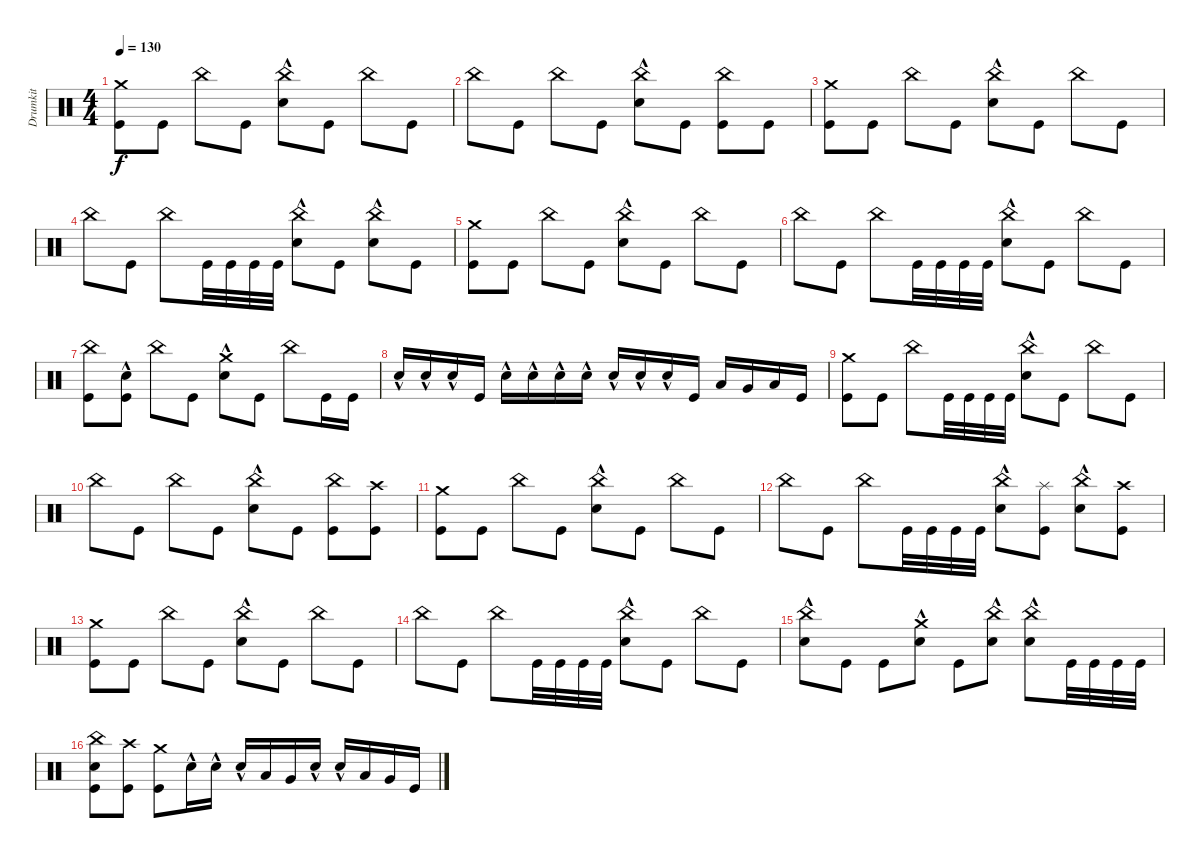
\track ("Drumkit" "Drumkit") {instrument percussion}
\staff {score}
\articulation defaults
\ts (4 4)
\tempo 130
\clef neutral
\ks c
("Kick (hit)" "Crash medium (hit)").8{dy f} "Kick (hit)".8 "China (hit)".8 "Kick (hit)".8 ("Snare (hit) 2"{hac} "China (hit)").8 "Kick (hit)".8 "China (hit)".8 "Kick (hit)".8 |
"China (hit)".8 "Kick (hit)".8 "China (hit)".8 "Kick (hit)".8 ("China (hit)" "Snare (hit) 2"{hac}).8 "Kick (hit)".8 ("China (hit)" "Kick (hit)").8 "Kick (hit)".8 |
("Kick (hit)" "Crash medium (hit)").8 "Kick (hit)".8 "China (hit)".8 "Kick (hit)".8 ("Snare (hit) 2"{hac} "China (hit)").8 "Kick (hit)".8 "China (hit)".8 "Kick (hit)".8 |
"China (hit)".8 "Kick (hit)".8 "China (hit)".8 "Kick (hit)".32 "Kick (hit)".32 "Kick (hit)".32 "Kick (hit)".32 ("China (hit)" "Snare (hit) 2"{hac}).8 "Kick (hit)".8 ("China (hit)" "Snare (hit) 2"{hac}).8 "Kick (hit)".8 |
("Kick (hit)" "Crash medium (hit)").8 "Kick (hit)".8 "China (hit)".8 "Kick (hit)".8 ("Snare (hit) 2"{hac} "China (hit)").8 "Kick (hit)".8 "China (hit)".8 "Kick (hit)".8 |
"China (hit)".8 "Kick (hit)".8 "China (hit)".8 "Kick (hit)".32 "Kick (hit)".32 "Kick (hit)".32 "Kick (hit)".32 ("China (hit)" "Snare (hit) 2"{hac}).8 "Kick (hit)".8 "China (hit)".8 "Kick (hit)".8 |
("Kick (hit)" "China (hit)").8 ("Kick (hit)" "Snare (hit) 2"{hac}).8 "China (hit)".8 "Kick (hit)".8 ("Snare (hit) 2"{hac} "Crash medium (hit)").8 "Kick (hit)".8 "China (hit)".8 "Kick (hit)".16 "Kick (hit)".16 |
"Snare (hit) 2"{hac}.16 "Snare (hit) 2"{hac}.16 "Snare (hit) 2"{hac}.16 "Kick (hit)".16 "Snare (hit) 2"{hac}.16 "Snare (hit) 2"{hac}.16 "Snare (hit) 2"{hac}.16 "Snare (hit) 2"{hac}.16 "Snare (hit) 2"{hac}.16 "Snare (hit) 2"{hac}.16 "Snare (hit) 2"{hac}.16 "Kick (hit)".16 "Low Tom (hit)".16 "Very Low Tom (hit)".16 "Low Floor Tom (hit)".16 "Kick (hit)".16 |
("Kick (hit)" "Crash medium (hit)").8 "Kick (hit)".8 "China (hit)".8 "Kick (hit)".32 "Kick (hit)".32 "Kick (hit)".32 "Kick (hit)".32 ("Snare (hit) 2"{hac} "China (hit)").8 "Kick (hit)".8 "China (hit)".8 "Kick (hit)".8 |
"China (hit)".8 "Kick (hit)".8 "China (hit)".8 "Kick (hit)".8 ("China (hit)" "Snare (hit) 2"{hac}).8 "Kick (hit)".8 ("China (hit)" "Kick (hit)").8 ("Kick (hit)" "Crash high (hit)").8 |
("Kick (hit)" "Crash medium (hit)").8 "Kick (hit)".8 "China (hit)".8 "Kick (hit)".8 ("Snare (hit) 2"{hac} "China (hit)").8 "Kick (hit)".8 "China (hit)".8 "Kick (hit)".8 |
"China (hit)".8 "Kick (hit)".8 "China (hit)".8 "Kick (hit)".32 "Kick (hit)".32 "Kick (hit)".32 "Kick (hit)".32 ("China (hit)" "Snare (hit) 2"{hac}).8 ("Kick (hit)" "Splash (hit)").8 ("China (hit)" "Snare (hit) 2"{hac}).8 ("Kick (hit)" "Crash high (hit)").8 |
("Kick (hit)" "Crash medium (hit)").8 "Kick (hit)".8 "China (hit)".8 "Kick (hit)".8 ("Snare (hit) 2"{hac} "China (hit)").8 "Kick (hit)".8 "China (hit)".8 "Kick (hit)".8 |
"China (hit)".8 "Kick (hit)".8 "China (hit)".8 "Kick (hit)".32 "Kick (hit)".32 "Kick (hit)".32 "Kick (hit)".32 ("China (hit)" "Snare (hit) 2"{hac}).8 "Kick (hit)".8 "China (hit)".8 "Kick (hit)".8 |
("China (hit)" "Snare (hit) 2"{hac}).8 "Kick (hit)".8 "Kick (hit)".8 ("Snare (hit) 2"{hac} "Crash medium (hit)").8 "Kick (hit)".8 ("Snare (hit) 2"{hac} "China (hit)").8 ("Snare (hit) 2"{hac} "China (hit)").8 "Kick (hit)".32 "Kick (hit)".32 "Kick (hit)".32 "Kick (hit)".32 |
("Snare (hit) 2" "Kick (hit)" "China (hit)").8 ("Kick (hit)" "Crash high (hit)").8 ("Kick (hit)" "Crash medium (hit)").8 "Snare (hit) 2"{hac}.16 "Snare (hit) 2"{hac}.16 "Snare (hit) 2"{hac}.16 "Low Tom (hit)".16 "Very Low Tom (hit)".16 "Snare (hit) 2"{hac}.16 "Snare (hit) 2"{hac}.16 "Low Tom (hit)".16 "Very Low Tom (hit)".16 "Kick (hit)".16
